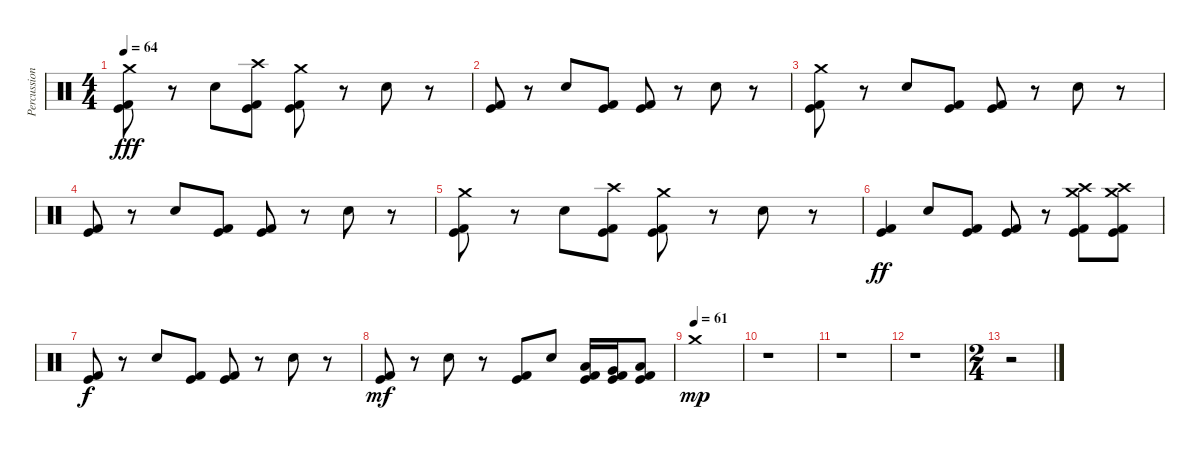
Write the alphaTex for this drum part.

\track ("Percussion" "Percussion") {instrument percussion}
\staff {score}
\articulation defaults
\ts (4 4)
\tempo 64
\clef neutral
\ks c
("Crash medium (hit)" "Kick (hit) 2" "Kick (hit)").8{dy fff} r.8 "Snare (hit) 2".8 ("Crash high (hit)" "Kick (hit) 2" "Kick (hit)").8 ("Crash medium (hit)" "Kick (hit) 2" "Kick (hit)").8 r.8 "Snare (hit) 2".8 r.8 |
("Kick (hit) 2" "Kick (hit)").8 r.8 "Snare (hit) 2".8 ("Kick (hit) 2" "Kick (hit)").8 ("Kick (hit) 2" "Kick (hit)").8 r.8 "Snare (hit) 2".8 r.8 |
("Crash medium (hit)" "Kick (hit) 2" "Kick (hit)").8 r.8 "Snare (hit) 2".8 ("Kick (hit) 2" "Kick (hit)").8 ("Kick (hit) 2" "Kick (hit)").8 r.8 "Snare (hit) 2".8 r.8 |
("Kick (hit) 2" "Kick (hit)").8 r.8 "Snare (hit) 2".8 ("Kick (hit) 2" "Kick (hit)").8 ("Kick (hit) 2" "Kick (hit)").8 r.8 "Snare (hit) 2".8 r.8 |
("Crash medium (hit)" "Kick (hit) 2" "Kick (hit)").8 r.8 "Snare (hit) 2".8 ("Crash high (hit)" "Kick (hit) 2" "Kick (hit)").8 ("Crash medium (hit)" "Kick (hit) 2" "Kick (hit)").8 r.8 "Snare (hit) 2".8 r.8 |
("Kick (hit) 2" "Kick (hit)").4{dy ff} "Snare (hit) 2".8 ("Kick (hit) 2" "Kick (hit)").8 ("Kick (hit) 2" "Kick (hit)").8 r.8 ("Crash medium (hit)" "Crash high (hit)" "Kick (hit) 2" "Kick (hit)").8 ("Crash medium (hit)" "Crash high (hit)" "Kick (hit) 2" "Kick (hit)").8 |
("Kick (hit) 2" "Kick (hit)").8{dy f} r.8 "Snare (hit) 2".8 ("Kick (hit) 2" "Kick (hit)").8 ("Kick (hit) 2" "Kick (hit)").8 r.8 "Snare (hit) 2".8 r.8 |
("Kick (hit) 2" "Kick (hit)").8{dy mf} r.8 "Snare (hit) 2".8 r.8 ("Kick (hit) 2" "Kick (hit)").8 "Snare (hit) 2".8 ("Low Tom (hit)" "Kick (hit) 2" "Kick (hit)").16 ("Very Low Tom (hit)" "Kick (hit) 2" "Kick (hit)").16 ("Low Floor Tom (hit)" "Kick (hit) 2" "Kick (hit)").8 |
\tempo (61)
"Crash medium (hit)".1{dy mp} |
r.1 |
r.1 |
r.1 |
\ts (2 4)
r.2
